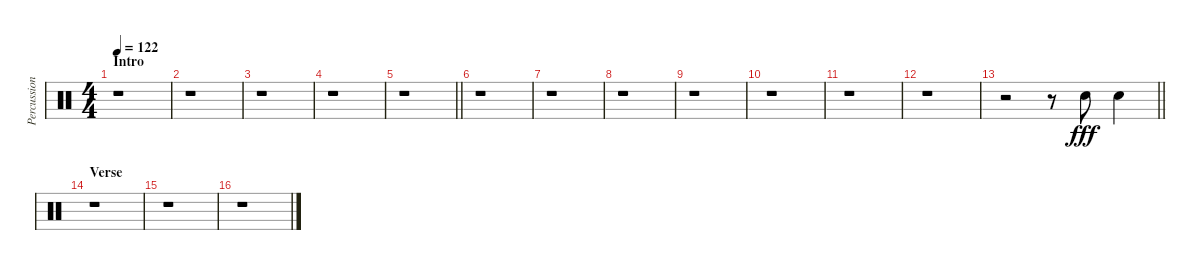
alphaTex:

\track ("Percussion" "Percussion") {instrument percussion}
\staff {score}
\articulation defaults
\ts (4 4)
\section ("" "Intro")
\tempo 122
\clef neutral
\ks c
r.1{dy fff} |
r.1 |
r.1 |
r.1 |
\barLineRight lightlight
r.1 |
r.1 |
r.1 |
r.1 |
r.1 |
r.1 |
r.1 |
r.1 |
\barLineRight lightlight
r.2 r.8 "Hand Clap (hit)".8{volume 10} "Hand Clap (hit)".4 |
\section ("" "Verse")
r.1 |
r.1 |
r.1
